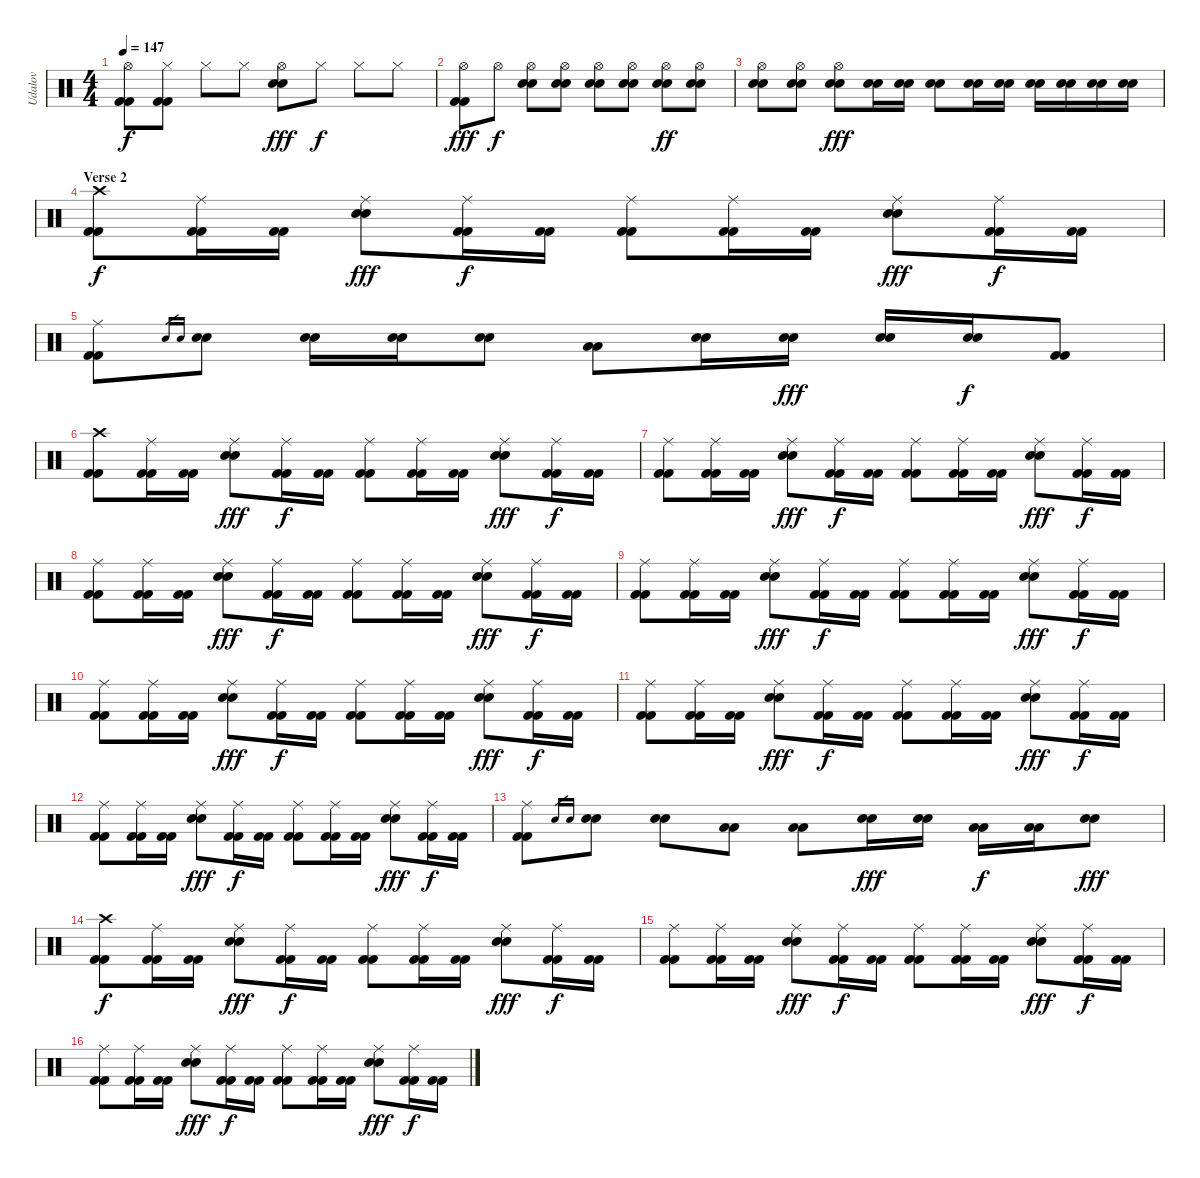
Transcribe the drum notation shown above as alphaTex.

\track ("Udalov" "Udalov") {instrument percussion}
\staff {score}
\articulation defaults
\ts (4 4)
\tempo 147
\clef neutral
\ks c
("Hi-Hat (open)" "Kick (hit) 2" "Kick (hit) 2").8{dy f} ("Hi-Hat (closed)" "Kick (hit) 2" "Kick (hit) 2").8 "Hi-Hat (closed)".8 "Hi-Hat (closed)".8 ("Hi-Hat (open)" "Electric Snare (hit)" "Electric Snare (hit)").8{dy fff} "Hi-Hat (closed)".8{dy f} "Hi-Hat (closed)".8 "Hi-Hat (closed)".8 |
("Hi-Hat (open)" "Kick (hit) 2" "Kick (hit) 2").8{dy fff} "Hi-Hat (open)".8{dy f} ("Hi-Hat (open)" "Electric Snare (hit)" "Electric Snare (hit)").8 ("Hi-Hat (open)" "Electric Snare (hit)" "Electric Snare (hit)").8 ("Hi-Hat (open)" "Electric Snare (hit)" "Electric Snare (hit)").8 ("Hi-Hat (open)" "Electric Snare (hit)" "Electric Snare (hit)").8 ("Hi-Hat (open)" "Electric Snare (hit)" "Electric Snare (hit)").8{dy ff} ("Hi-Hat (open)" "Electric Snare (hit)" "Electric Snare (hit)").8 |
("Hi-Hat (open)" "Electric Snare (hit)" "Electric Snare (hit)").8 ("Hi-Hat (open)" "Electric Snare (hit)" "Electric Snare (hit)").8 ("Hi-Hat (open)" "Electric Snare (hit)" "Electric Snare (hit)").8{dy fff} ("Electric Snare (hit)" "Electric Snare (hit)").16 ("Electric Snare (hit)" "Electric Snare (hit)").16 ("Electric Snare (hit)" "Electric Snare (hit)").8 ("Electric Snare (hit)" "Electric Snare (hit)").16 ("Electric Snare (hit)" "Electric Snare (hit)").16 ("Electric Snare (hit)" "Electric Snare (hit)").16 ("Electric Snare (hit)" "Electric Snare (hit)").16 ("Electric Snare (hit)" "Electric Snare (hit)").16 ("Electric Snare (hit)" "Electric Snare (hit)").16 |
\section ("" "Verse 2")
("Crash high (hit)" "Kick (hit) 2" "Kick (hit) 2").8{dy f} ("Ride (middle)" "Kick (hit) 2" "Kick (hit) 2").16 ("Kick (hit) 2" "Kick (hit) 2").16 ("Ride (middle)" "Electric Snare (hit)" "Electric Snare (hit)").8{dy fff} ("Ride (middle)" "Kick (hit) 2" "Kick (hit) 2").16{dy f} ("Kick (hit) 2" "Kick (hit) 2").16 ("Ride (middle)" "Kick (hit) 2" "Kick (hit) 2").8 ("Ride (middle)" "Kick (hit) 2" "Kick (hit) 2").16 ("Kick (hit) 2" "Kick (hit) 2").16 ("Ride (middle)" "Electric Snare (hit)" "Electric Snare (hit)").8{dy fff} ("Ride (middle)" "Kick (hit) 2" "Kick (hit) 2").16{dy f} ("Kick (hit) 2" "Kick (hit) 2").16 |
("Ride (middle)" "Kick (hit) 2" "Kick (hit) 2").8 "Electric Snare (hit)".16{gr} "Electric Snare (hit)".16{gr} ("Electric Snare (hit)" "Electric Snare (hit)").8 ("Electric Snare (hit)" "Electric Snare (hit)").16 ("Electric Snare (hit)" "Electric Snare (hit)").16 ("Electric Snare (hit)" "Electric Snare (hit)").8 ("Low Tom (hit)" "Low Tom (hit)").8 ("Electric Snare (hit)" "Electric Snare (hit)").16 ("Electric Snare (hit)" "Electric Snare (hit)").16{dy fff} ("Electric Snare (hit)" "Electric Snare (hit)").16 ("Electric Snare (hit)" "Electric Snare (hit)").16{dy f} ("Kick (hit) 2" "Kick (hit) 2").8 |
("Crash high (hit)" "Kick (hit) 2" "Kick (hit) 2").8 ("Ride (middle)" "Kick (hit) 2" "Kick (hit) 2").16 ("Kick (hit) 2" "Kick (hit) 2").16 ("Ride (middle)" "Electric Snare (hit)" "Electric Snare (hit)").8{dy fff} ("Ride (middle)" "Kick (hit) 2" "Kick (hit) 2").16{dy f} ("Kick (hit) 2" "Kick (hit) 2").16 ("Ride (middle)" "Kick (hit) 2" "Kick (hit) 2").8 ("Ride (middle)" "Kick (hit) 2" "Kick (hit) 2").16 ("Kick (hit) 2" "Kick (hit) 2").16 ("Ride (middle)" "Electric Snare (hit)" "Electric Snare (hit)").8{dy fff} ("Ride (middle)" "Kick (hit) 2" "Kick (hit) 2").16{dy f} ("Kick (hit) 2" "Kick (hit) 2").16 |
("Ride (middle)" "Kick (hit) 2" "Kick (hit) 2").8 ("Ride (middle)" "Kick (hit) 2" "Kick (hit) 2").16 ("Kick (hit) 2" "Kick (hit) 2").16 ("Ride (middle)" "Electric Snare (hit)" "Electric Snare (hit)").8{dy fff} ("Ride (middle)" "Kick (hit) 2" "Kick (hit) 2").16{dy f} ("Kick (hit) 2" "Kick (hit) 2").16 ("Ride (middle)" "Kick (hit) 2" "Kick (hit) 2").8 ("Ride (middle)" "Kick (hit) 2" "Kick (hit) 2").16 ("Kick (hit) 2" "Kick (hit) 2").16 ("Ride (middle)" "Electric Snare (hit)" "Electric Snare (hit)").8{dy fff} ("Ride (middle)" "Kick (hit) 2" "Kick (hit) 2").16{dy f} ("Kick (hit) 2" "Kick (hit) 2").16 |
("Ride (middle)" "Kick (hit) 2" "Kick (hit) 2").8 ("Ride (middle)" "Kick (hit) 2" "Kick (hit) 2").16 ("Kick (hit) 2" "Kick (hit) 2").16 ("Ride (middle)" "Electric Snare (hit)" "Electric Snare (hit)").8{dy fff} ("Ride (middle)" "Kick (hit) 2" "Kick (hit) 2").16{dy f} ("Kick (hit) 2" "Kick (hit) 2").16 ("Ride (middle)" "Kick (hit) 2" "Kick (hit) 2").8 ("Ride (middle)" "Kick (hit) 2" "Kick (hit) 2").16 ("Kick (hit) 2" "Kick (hit) 2").16 ("Ride (middle)" "Electric Snare (hit)" "Electric Snare (hit)").8{dy fff} ("Ride (middle)" "Kick (hit) 2" "Kick (hit) 2").16{dy f} ("Kick (hit) 2" "Kick (hit) 2").16 |
("Ride (middle)" "Kick (hit) 2" "Kick (hit) 2").8 ("Ride (middle)" "Kick (hit) 2" "Kick (hit) 2").16 ("Kick (hit) 2" "Kick (hit) 2").16 ("Ride (middle)" "Electric Snare (hit)" "Electric Snare (hit)").8{dy fff} ("Ride (middle)" "Kick (hit) 2" "Kick (hit) 2").16{dy f} ("Kick (hit) 2" "Kick (hit) 2").16 ("Ride (middle)" "Kick (hit) 2" "Kick (hit) 2").8 ("Ride (middle)" "Kick (hit) 2" "Kick (hit) 2").16 ("Kick (hit) 2" "Kick (hit) 2").16 ("Ride (middle)" "Electric Snare (hit)" "Electric Snare (hit)").8{dy fff} ("Ride (middle)" "Kick (hit) 2" "Kick (hit) 2").16{dy f} ("Kick (hit) 2" "Kick (hit) 2").16 |
("Ride (middle)" "Kick (hit) 2" "Kick (hit) 2").8 ("Ride (middle)" "Kick (hit) 2" "Kick (hit) 2").16 ("Kick (hit) 2" "Kick (hit) 2").16 ("Ride (middle)" "Electric Snare (hit)" "Electric Snare (hit)").8{dy fff} ("Ride (middle)" "Kick (hit) 2" "Kick (hit) 2").16{dy f} ("Kick (hit) 2" "Kick (hit) 2").16 ("Ride (middle)" "Kick (hit) 2" "Kick (hit) 2").8 ("Ride (middle)" "Kick (hit) 2" "Kick (hit) 2").16 ("Kick (hit) 2" "Kick (hit) 2").16 ("Ride (middle)" "Electric Snare (hit)" "Electric Snare (hit)").8{dy fff} ("Ride (middle)" "Kick (hit) 2" "Kick (hit) 2").16{dy f} ("Kick (hit) 2" "Kick (hit) 2").16 |
("Ride (middle)" "Kick (hit) 2" "Kick (hit) 2").8 ("Ride (middle)" "Kick (hit) 2" "Kick (hit) 2").16 ("Kick (hit) 2" "Kick (hit) 2").16 ("Ride (middle)" "Electric Snare (hit)" "Electric Snare (hit)").8{dy fff} ("Ride (middle)" "Kick (hit) 2" "Kick (hit) 2").16{dy f} ("Kick (hit) 2" "Kick (hit) 2").16 ("Ride (middle)" "Kick (hit) 2" "Kick (hit) 2").8 ("Ride (middle)" "Kick (hit) 2" "Kick (hit) 2").16 ("Kick (hit) 2" "Kick (hit) 2").16 ("Ride (middle)" "Electric Snare (hit)" "Electric Snare (hit)").8{dy fff} ("Ride (middle)" "Kick (hit) 2" "Kick (hit) 2").16{dy f} ("Kick (hit) 2" "Kick (hit) 2").16 |
("Ride (middle)" "Kick (hit) 2" "Kick (hit) 2").8 ("Ride (middle)" "Kick (hit) 2" "Kick (hit) 2").16 ("Kick (hit) 2" "Kick (hit) 2").16 ("Ride (middle)" "Electric Snare (hit)" "Electric Snare (hit)").8{dy fff} ("Ride (middle)" "Kick (hit) 2" "Kick (hit) 2").16{dy f} ("Kick (hit) 2" "Kick (hit) 2").16 ("Ride (middle)" "Kick (hit) 2" "Kick (hit) 2").8 ("Ride (middle)" "Kick (hit) 2" "Kick (hit) 2").16 ("Kick (hit) 2" "Kick (hit) 2").16 ("Ride (middle)" "Electric Snare (hit)" "Electric Snare (hit)").8{dy fff} ("Ride (middle)" "Kick (hit) 2" "Kick (hit) 2").16{dy f} ("Kick (hit) 2" "Kick (hit) 2").16 |
("Ride (middle)" "Kick (hit) 2" "Kick (hit) 2").8 "Electric Snare (hit)".16{gr} "Electric Snare (hit)".16{gr} ("Electric Snare (hit)" "Electric Snare (hit)").8 ("Electric Snare (hit)" "Electric Snare (hit)").8 ("Low Tom (hit)" "Low Tom (hit)").8 ("Low Tom (hit)" "Low Tom (hit)").8 ("Electric Snare (hit)" "Electric Snare (hit)").16{dy fff} ("Electric Snare (hit)" "Electric Snare (hit)").16 ("Low Tom (hit)" "Low Tom (hit)").16{dy f} ("Low Tom (hit)" "Low Tom (hit)").16 ("Electric Snare (hit)" "Electric Snare (hit)").8{dy fff} |
("Crash high (hit)" "Kick (hit) 2" "Kick (hit) 2").8{dy f} ("Ride (middle)" "Kick (hit) 2" "Kick (hit) 2").16 ("Kick (hit) 2" "Kick (hit) 2").16 ("Ride (middle)" "Electric Snare (hit)" "Electric Snare (hit)").8{dy fff} ("Ride (middle)" "Kick (hit) 2" "Kick (hit) 2").16{dy f} ("Kick (hit) 2" "Kick (hit) 2").16 ("Ride (middle)" "Kick (hit) 2" "Kick (hit) 2").8 ("Ride (middle)" "Kick (hit) 2" "Kick (hit) 2").16 ("Kick (hit) 2" "Kick (hit) 2").16 ("Ride (middle)" "Electric Snare (hit)" "Electric Snare (hit)").8{dy fff} ("Ride (middle)" "Kick (hit) 2" "Kick (hit) 2").16{dy f} ("Kick (hit) 2" "Kick (hit) 2").16 |
("Ride (middle)" "Kick (hit) 2" "Kick (hit) 2").8 ("Ride (middle)" "Kick (hit) 2" "Kick (hit) 2").16 ("Kick (hit) 2" "Kick (hit) 2").16 ("Ride (middle)" "Electric Snare (hit)" "Electric Snare (hit)").8{dy fff} ("Ride (middle)" "Kick (hit) 2" "Kick (hit) 2").16{dy f} ("Kick (hit) 2" "Kick (hit) 2").16 ("Ride (middle)" "Kick (hit) 2" "Kick (hit) 2").8 ("Ride (middle)" "Kick (hit) 2" "Kick (hit) 2").16 ("Kick (hit) 2" "Kick (hit) 2").16 ("Ride (middle)" "Electric Snare (hit)" "Electric Snare (hit)").8{dy fff} ("Ride (middle)" "Kick (hit) 2" "Kick (hit) 2").16{dy f} ("Kick (hit) 2" "Kick (hit) 2").16 |
("Ride (middle)" "Kick (hit) 2" "Kick (hit) 2").8 ("Ride (middle)" "Kick (hit) 2" "Kick (hit) 2").16 ("Kick (hit) 2" "Kick (hit) 2").16 ("Ride (middle)" "Electric Snare (hit)" "Electric Snare (hit)").8{dy fff} ("Ride (middle)" "Kick (hit) 2" "Kick (hit) 2").16{dy f} ("Kick (hit) 2" "Kick (hit) 2").16 ("Ride (middle)" "Kick (hit) 2" "Kick (hit) 2").8 ("Ride (middle)" "Kick (hit) 2" "Kick (hit) 2").16 ("Kick (hit) 2" "Kick (hit) 2").16 ("Ride (middle)" "Electric Snare (hit)" "Electric Snare (hit)").8{dy fff} ("Ride (middle)" "Kick (hit) 2" "Kick (hit) 2").16{dy f} ("Kick (hit) 2" "Kick (hit) 2").16
